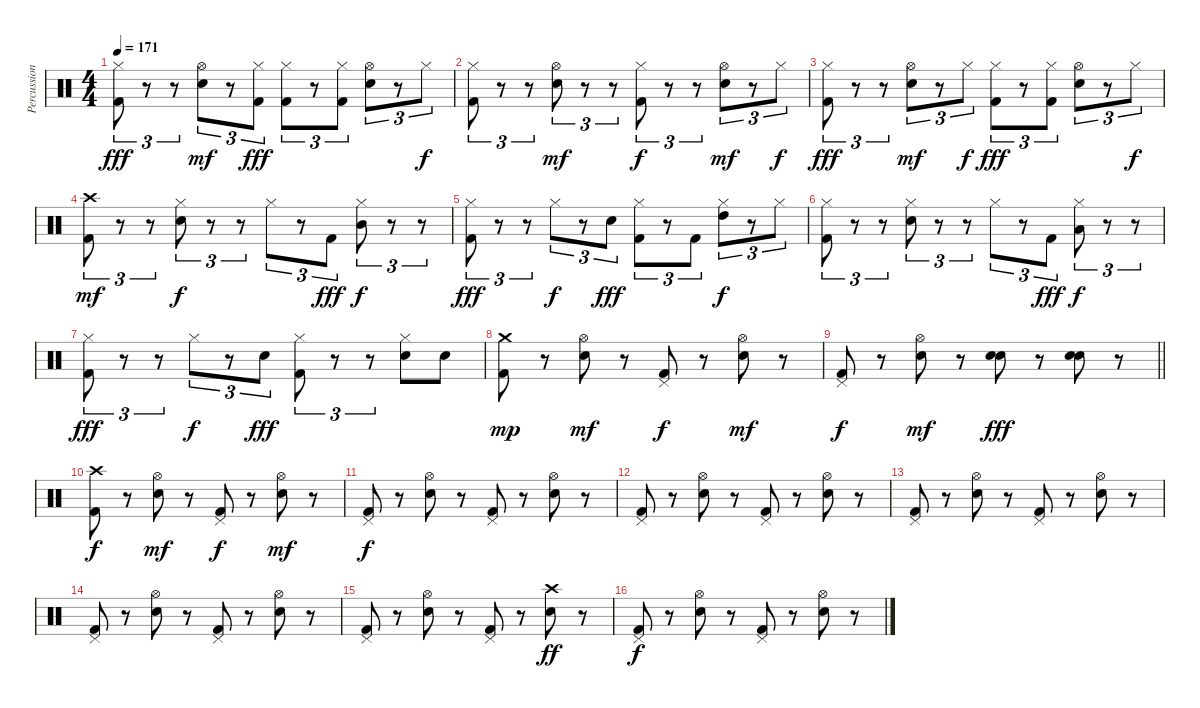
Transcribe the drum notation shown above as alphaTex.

\track ("Percussions" "Percussion") {instrument percussion}
\staff {score}
\articulation defaults
\ts (4 4)
\tempo 171
\clef neutral
\ks c
("Kick (hit) 2" "Hi-Hat (closed)").8{tu (3 2) dy fff} r.8{tu (3 2)} r.8{tu (3 2)} ("Electric Snare (hit)" "Hi-Hat (open)").8{tu (3 2) dy mf} r.8{tu (3 2)} ("Kick (hit) 2" "Hi-Hat (closed)").8{tu (3 2) dy fff} ("Kick (hit) 2" "Hi-Hat (closed)").8{tu (3 2)} r.8{tu (3 2)} ("Kick (hit) 2" "Hi-Hat (closed)").8{tu (3 2)} ("Electric Snare (hit)" "Hi-Hat (open)").8{tu (3 2)} r.8{tu (3 2)} "Hi-Hat (closed)".8{tu (3 2) dy f} |
("Kick (hit) 2" "Hi-Hat (closed)").8{tu (3 2)} r.8{tu (3 2)} r.8{tu (3 2)} ("Electric Snare (hit)" "Hi-Hat (open)").8{tu (3 2) dy mf} r.8{tu (3 2)} r.8{tu (3 2)} ("Kick (hit) 2" "Hi-Hat (closed)").8{tu (3 2) dy f} r.8{tu (3 2)} r.8{tu (3 2)} ("Electric Snare (hit)" "Hi-Hat (open)").8{tu (3 2) dy mf} r.8{tu (3 2)} "Hi-Hat (closed)".8{tu (3 2) dy f} |
("Kick (hit) 2" "Hi-Hat (closed)").8{tu (3 2) dy fff} r.8{tu (3 2)} r.8{tu (3 2)} ("Electric Snare (hit)" "Hi-Hat (open)").8{tu (3 2) dy mf} r.8{tu (3 2)} "Hi-Hat (closed)".8{tu (3 2) dy f} ("Kick (hit) 2" "Hi-Hat (closed)").8{tu (3 2) dy fff} r.8{tu (3 2)} ("Kick (hit) 2" "Hi-Hat (closed)").8{tu (3 2)} ("Electric Snare (hit)" "Hi-Hat (open)").8{tu (3 2)} r.8{tu (3 2)} "Hi-Hat (closed)".8{tu (3 2) dy f} |
("Kick (hit) 2" "Crash high (hit)").8{tu (3 2) dy mf} r.8{tu (3 2)} r.8{tu (3 2)} ("Electric Snare (hit)" "Hi-Hat (closed)").8{tu (3 2) dy f} r.8{tu (3 2)} r.8{tu (3 2)} "Hi-Hat (closed)".8{tu (3 2)} r.8{tu (3 2)} "Kick (hit) 2".8{tu (3 2) dy fff} ("Mid Tom (hit)" "Hi-Hat (closed)").8{tu (3 2) dy f} r.8{tu (3 2)} r.8{tu (3 2)} |
("Kick (hit) 2" "Hi-Hat (closed)").8{tu (3 2) dy fff} r.8{tu (3 2)} r.8{tu (3 2)} "Hi-Hat (closed)".8{tu (3 2) dy f} r.8{tu (3 2)} "Electric Snare (hit)".8{tu (3 2) dy fff} ("Kick (hit) 2" "Hi-Hat (closed)").8{tu (3 2)} r.8{tu (3 2)} "Kick (hit) 2".8{tu (3 2)} ("High Tom (hit)" "Hi-Hat (closed)").8{tu (3 2) dy f} r.8{tu (3 2)} "Hi-Hat (closed)".8{tu (3 2)} |
("Kick (hit) 2" "Hi-Hat (closed)").8{tu (3 2)} r.8{tu (3 2)} r.8{tu (3 2)} ("Electric Snare (hit)" "Hi-Hat (closed)").8{tu (3 2)} r.8{tu (3 2)} r.8{tu (3 2)} "Hi-Hat (closed)".8{tu (3 2)} r.8{tu (3 2)} "Kick (hit) 2".8{tu (3 2) dy fff} ("Low Tom (hit)" "Hi-Hat (closed)").8{tu (3 2) dy f} r.8{tu (3 2)} r.8{tu (3 2)} |
("Kick (hit) 2" "Hi-Hat (closed)").8{tu (3 2) dy fff} r.8{tu (3 2)} r.8{tu (3 2)} "Hi-Hat (closed)".8{tu (3 2) dy f} r.8{tu (3 2)} "Electric Snare (hit)".8{tu (3 2) dy fff} ("Kick (hit) 2" "Hi-Hat (closed)").8{tu (3 2)} r.8{tu (3 2)} r.8{tu (3 2)} ("Electric Snare (hit)" "Hi-Hat (closed)").8 "Electric Snare (hit)".8 |
("Kick (hit) 2" "Crash medium (hit)").8{dy mp} r.8 ("Electric Snare (hit)" "Hi-Hat (open)").8{dy mf} r.8 ("Kick (hit) 2" "Pedal Hi-Hat (hit)").8{dy f} r.8 ("Electric Snare (hit)" "Hi-Hat (open)").8{dy mf} r.8 |
\barLineRight lightlight
("Kick (hit) 2" "Pedal Hi-Hat (hit)").8{dy f} r.8 ("Electric Snare (hit)" "Hi-Hat (open)").8{dy mf} r.8 ("Electric Snare (hit)" "Electric Snare (hit)").8{dy fff} r.8 ("Electric Snare (hit)" "Electric Snare (hit)").8 r.8 |
\section ("" "")
("Kick (hit) 2" "Crash high (hit)").8{dy f} r.8 ("Electric Snare (hit)" "Hi-Hat (open)").8{dy mf} r.8 ("Kick (hit) 2" "Pedal Hi-Hat (hit)").8{dy f} r.8 ("Electric Snare (hit)" "Hi-Hat (open)").8{dy mf} r.8 |
("Kick (hit) 2" "Pedal Hi-Hat (hit)").8{dy f} r.8 ("Electric Snare (hit)" "Hi-Hat (open)").8 r.8 ("Kick (hit) 2" "Pedal Hi-Hat (hit)").8 r.8 ("Electric Snare (hit)" "Hi-Hat (open)").8 r.8 |
("Kick (hit) 2" "Pedal Hi-Hat (hit)").8 r.8 ("Electric Snare (hit)" "Hi-Hat (open)").8 r.8 ("Kick (hit) 2" "Pedal Hi-Hat (hit)").8 r.8 ("Electric Snare (hit)" "Hi-Hat (open)").8 r.8 |
("Kick (hit) 2" "Pedal Hi-Hat (hit)").8 r.8 ("Electric Snare (hit)" "Hi-Hat (open)").8 r.8 ("Kick (hit) 2" "Pedal Hi-Hat (hit)").8 r.8 ("Electric Snare (hit)" "Hi-Hat (open)").8 r.8 |
("Kick (hit) 2" "Pedal Hi-Hat (hit)").8 r.8 ("Electric Snare (hit)" "Hi-Hat (open)").8 r.8 ("Kick (hit) 2" "Pedal Hi-Hat (hit)").8 r.8 ("Electric Snare (hit)" "Hi-Hat (open)").8 r.8 |
("Kick (hit) 2" "Pedal Hi-Hat (hit)").8 r.8 ("Electric Snare (hit)" "Hi-Hat (open)").8 r.8 ("Kick (hit) 2" "Pedal Hi-Hat (hit)").8 r.8 ("Electric Snare (hit)" "Crash high (hit)").8{dy ff} r.8 |
("Kick (hit) 2" "Pedal Hi-Hat (hit)").8{dy f} r.8 ("Electric Snare (hit)" "Hi-Hat (open)").8 r.8 ("Kick (hit) 2" "Pedal Hi-Hat (hit)").8 r.8 ("Electric Snare (hit)" "Hi-Hat (open)").8 r.8
